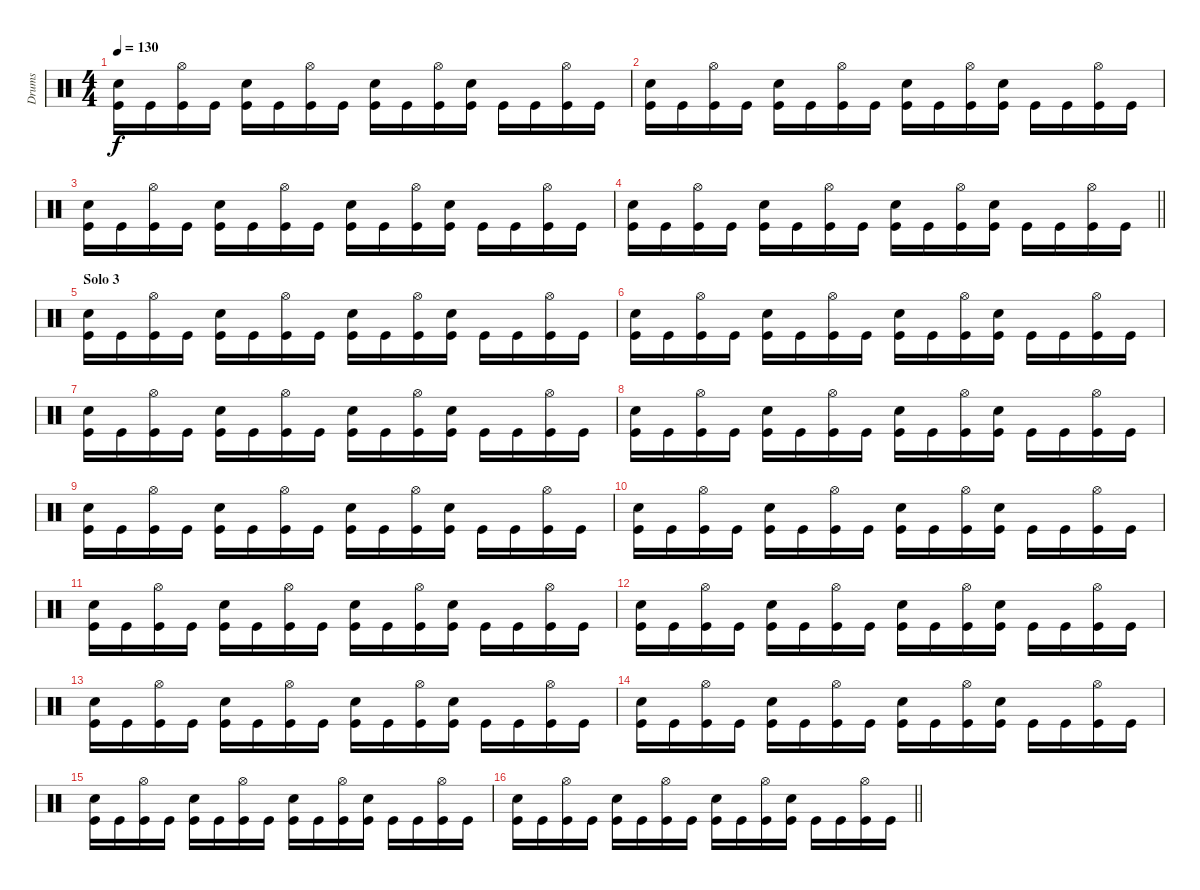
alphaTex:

\track ("Drums" "Drums") {instrument percussion}
\staff {score}
\articulation defaults
\ts (4 4)
\tempo 130
\clef neutral
\ks c
("Snare (hit) 2" "Kick (hit)").16{dy f} "Kick (hit)".16 ("Hi-Hat (open)" "Kick (hit)").16 "Kick (hit)".16 ("Snare (hit) 2" "Kick (hit)").16 "Kick (hit)".16 ("Hi-Hat (open)" "Kick (hit)").16 "Kick (hit)".16 ("Snare (hit) 2" "Kick (hit)").16 "Kick (hit)".16 ("Hi-Hat (open)" "Kick (hit)").16 ("Snare (hit) 2" "Kick (hit)").16 "Kick (hit)".16 "Kick (hit)".16 ("Hi-Hat (open)" "Kick (hit)").16 "Kick (hit)".16 |
("Snare (hit) 2" "Kick (hit)").16 "Kick (hit)".16 ("Hi-Hat (open)" "Kick (hit)").16 "Kick (hit)".16 ("Snare (hit) 2" "Kick (hit)").16 "Kick (hit)".16 ("Hi-Hat (open)" "Kick (hit)").16 "Kick (hit)".16 ("Snare (hit) 2" "Kick (hit)").16 "Kick (hit)".16 ("Hi-Hat (open)" "Kick (hit)").16 ("Snare (hit) 2" "Kick (hit)").16 "Kick (hit)".16 "Kick (hit)".16 ("Hi-Hat (open)" "Kick (hit)").16 "Kick (hit)".16 |
("Snare (hit) 2" "Kick (hit)").16 "Kick (hit)".16 ("Hi-Hat (open)" "Kick (hit)").16 "Kick (hit)".16 ("Snare (hit) 2" "Kick (hit)").16 "Kick (hit)".16 ("Hi-Hat (open)" "Kick (hit)").16 "Kick (hit)".16 ("Snare (hit) 2" "Kick (hit)").16 "Kick (hit)".16 ("Hi-Hat (open)" "Kick (hit)").16 ("Snare (hit) 2" "Kick (hit)").16 "Kick (hit)".16 "Kick (hit)".16 ("Hi-Hat (open)" "Kick (hit)").16 "Kick (hit)".16 |
\barLineRight lightlight
("Snare (hit) 2" "Kick (hit)").16 "Kick (hit)".16 ("Hi-Hat (open)" "Kick (hit)").16 "Kick (hit)".16 ("Snare (hit) 2" "Kick (hit)").16 "Kick (hit)".16 ("Hi-Hat (open)" "Kick (hit)").16 "Kick (hit)".16 ("Snare (hit) 2" "Kick (hit)").16 "Kick (hit)".16 ("Hi-Hat (open)" "Kick (hit)").16 ("Snare (hit) 2" "Kick (hit)").16 "Kick (hit)".16 "Kick (hit)".16 ("Hi-Hat (open)" "Kick (hit)").16 "Kick (hit)".16 |
\section ("" "Solo 3")
("Snare (hit) 2" "Kick (hit)").16 "Kick (hit)".16 ("Hi-Hat (open)" "Kick (hit)").16 "Kick (hit)".16 ("Snare (hit) 2" "Kick (hit)").16 "Kick (hit)".16 ("Hi-Hat (open)" "Kick (hit)").16 "Kick (hit)".16 ("Snare (hit) 2" "Kick (hit)").16 "Kick (hit)".16 ("Hi-Hat (open)" "Kick (hit)").16 ("Snare (hit) 2" "Kick (hit)").16 "Kick (hit)".16 "Kick (hit)".16 ("Hi-Hat (open)" "Kick (hit)").16 "Kick (hit)".16 |
("Snare (hit) 2" "Kick (hit)").16 "Kick (hit)".16 ("Hi-Hat (open)" "Kick (hit)").16 "Kick (hit)".16 ("Snare (hit) 2" "Kick (hit)").16 "Kick (hit)".16 ("Hi-Hat (open)" "Kick (hit)").16 "Kick (hit)".16 ("Snare (hit) 2" "Kick (hit)").16 "Kick (hit)".16 ("Hi-Hat (open)" "Kick (hit)").16 ("Snare (hit) 2" "Kick (hit)").16 "Kick (hit)".16 "Kick (hit)".16 ("Hi-Hat (open)" "Kick (hit)").16 "Kick (hit)".16 |
("Snare (hit) 2" "Kick (hit)").16 "Kick (hit)".16 ("Hi-Hat (open)" "Kick (hit)").16 "Kick (hit)".16 ("Snare (hit) 2" "Kick (hit)").16 "Kick (hit)".16 ("Hi-Hat (open)" "Kick (hit)").16 "Kick (hit)".16 ("Snare (hit) 2" "Kick (hit)").16 "Kick (hit)".16 ("Hi-Hat (open)" "Kick (hit)").16 ("Snare (hit) 2" "Kick (hit)").16 "Kick (hit)".16 "Kick (hit)".16 ("Hi-Hat (open)" "Kick (hit)").16 "Kick (hit)".16 |
("Snare (hit) 2" "Kick (hit)").16 "Kick (hit)".16 ("Hi-Hat (open)" "Kick (hit)").16 "Kick (hit)".16 ("Snare (hit) 2" "Kick (hit)").16 "Kick (hit)".16 ("Hi-Hat (open)" "Kick (hit)").16 "Kick (hit)".16 ("Snare (hit) 2" "Kick (hit)").16 "Kick (hit)".16 ("Hi-Hat (open)" "Kick (hit)").16 ("Snare (hit) 2" "Kick (hit)").16 "Kick (hit)".16 "Kick (hit)".16 ("Hi-Hat (open)" "Kick (hit)").16 "Kick (hit)".16 |
("Snare (hit) 2" "Kick (hit)").16 "Kick (hit)".16 ("Hi-Hat (open)" "Kick (hit)").16 "Kick (hit)".16 ("Snare (hit) 2" "Kick (hit)").16 "Kick (hit)".16 ("Hi-Hat (open)" "Kick (hit)").16 "Kick (hit)".16 ("Snare (hit) 2" "Kick (hit)").16 "Kick (hit)".16 ("Hi-Hat (open)" "Kick (hit)").16 ("Snare (hit) 2" "Kick (hit)").16 "Kick (hit)".16 "Kick (hit)".16 ("Hi-Hat (open)" "Kick (hit)").16 "Kick (hit)".16 |
("Snare (hit) 2" "Kick (hit)").16 "Kick (hit)".16 ("Hi-Hat (open)" "Kick (hit)").16 "Kick (hit)".16 ("Snare (hit) 2" "Kick (hit)").16 "Kick (hit)".16 ("Hi-Hat (open)" "Kick (hit)").16 "Kick (hit)".16 ("Snare (hit) 2" "Kick (hit)").16 "Kick (hit)".16 ("Hi-Hat (open)" "Kick (hit)").16 ("Snare (hit) 2" "Kick (hit)").16 "Kick (hit)".16 "Kick (hit)".16 ("Hi-Hat (open)" "Kick (hit)").16 "Kick (hit)".16 |
("Snare (hit) 2" "Kick (hit)").16 "Kick (hit)".16 ("Hi-Hat (open)" "Kick (hit)").16 "Kick (hit)".16 ("Snare (hit) 2" "Kick (hit)").16 "Kick (hit)".16 ("Hi-Hat (open)" "Kick (hit)").16 "Kick (hit)".16 ("Snare (hit) 2" "Kick (hit)").16 "Kick (hit)".16 ("Hi-Hat (open)" "Kick (hit)").16 ("Snare (hit) 2" "Kick (hit)").16 "Kick (hit)".16 "Kick (hit)".16 ("Hi-Hat (open)" "Kick (hit)").16 "Kick (hit)".16 |
("Snare (hit) 2" "Kick (hit)").16 "Kick (hit)".16 ("Hi-Hat (open)" "Kick (hit)").16 "Kick (hit)".16 ("Snare (hit) 2" "Kick (hit)").16 "Kick (hit)".16 ("Hi-Hat (open)" "Kick (hit)").16 "Kick (hit)".16 ("Snare (hit) 2" "Kick (hit)").16 "Kick (hit)".16 ("Hi-Hat (open)" "Kick (hit)").16 ("Snare (hit) 2" "Kick (hit)").16 "Kick (hit)".16 "Kick (hit)".16 ("Hi-Hat (open)" "Kick (hit)").16 "Kick (hit)".16 |
("Snare (hit) 2" "Kick (hit)").16 "Kick (hit)".16 ("Hi-Hat (open)" "Kick (hit)").16 "Kick (hit)".16 ("Snare (hit) 2" "Kick (hit)").16 "Kick (hit)".16 ("Hi-Hat (open)" "Kick (hit)").16 "Kick (hit)".16 ("Snare (hit) 2" "Kick (hit)").16 "Kick (hit)".16 ("Hi-Hat (open)" "Kick (hit)").16 ("Snare (hit) 2" "Kick (hit)").16 "Kick (hit)".16 "Kick (hit)".16 ("Hi-Hat (open)" "Kick (hit)").16 "Kick (hit)".16 |
("Snare (hit) 2" "Kick (hit)").16 "Kick (hit)".16 ("Hi-Hat (open)" "Kick (hit)").16 "Kick (hit)".16 ("Snare (hit) 2" "Kick (hit)").16 "Kick (hit)".16 ("Hi-Hat (open)" "Kick (hit)").16 "Kick (hit)".16 ("Snare (hit) 2" "Kick (hit)").16 "Kick (hit)".16 ("Hi-Hat (open)" "Kick (hit)").16 ("Snare (hit) 2" "Kick (hit)").16 "Kick (hit)".16 "Kick (hit)".16 ("Hi-Hat (open)" "Kick (hit)").16 "Kick (hit)".16 |
("Snare (hit) 2" "Kick (hit)").16 "Kick (hit)".16 ("Hi-Hat (open)" "Kick (hit)").16 "Kick (hit)".16 ("Snare (hit) 2" "Kick (hit)").16 "Kick (hit)".16 ("Hi-Hat (open)" "Kick (hit)").16 "Kick (hit)".16 ("Snare (hit) 2" "Kick (hit)").16 "Kick (hit)".16 ("Hi-Hat (open)" "Kick (hit)").16 ("Snare (hit) 2" "Kick (hit)").16 "Kick (hit)".16 "Kick (hit)".16 ("Hi-Hat (open)" "Kick (hit)").16 "Kick (hit)".16 |
\barLineRight lightlight
("Snare (hit) 2" "Kick (hit)").16 "Kick (hit)".16 ("Hi-Hat (open)" "Kick (hit)").16 "Kick (hit)".16 ("Snare (hit) 2" "Kick (hit)").16 "Kick (hit)".16 ("Hi-Hat (open)" "Kick (hit)").16 "Kick (hit)".16 ("Snare (hit) 2" "Kick (hit)").16 "Kick (hit)".16 ("Hi-Hat (open)" "Kick (hit)").16 ("Snare (hit) 2" "Kick (hit)").16 "Kick (hit)".16 "Kick (hit)".16 ("Hi-Hat (open)" "Kick (hit)").16 "Kick (hit)".16
